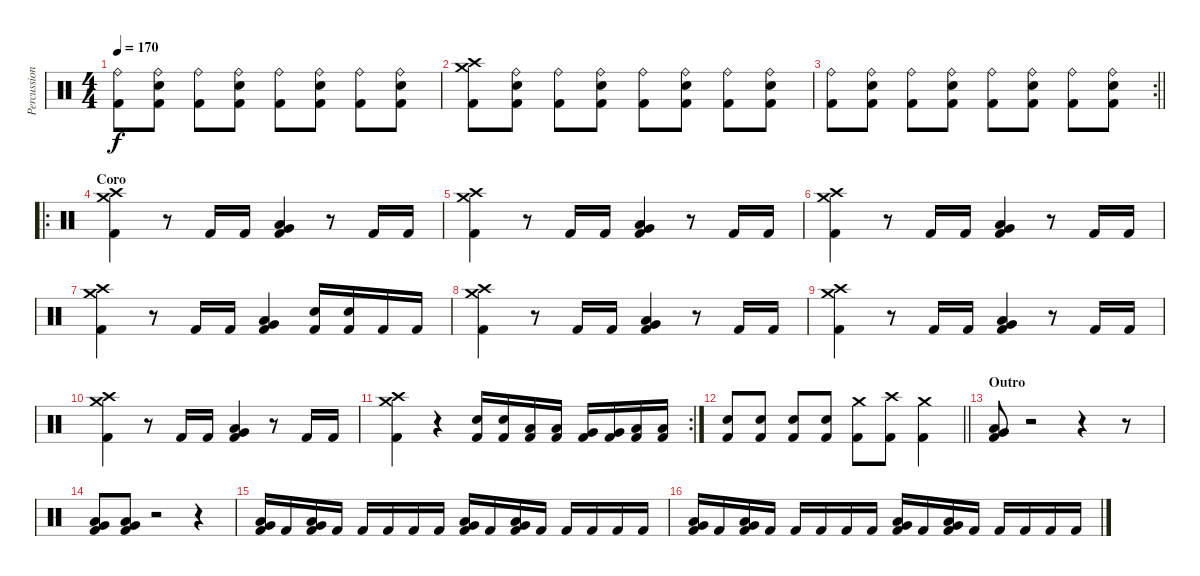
\track ("Percussion" "Percussion") {instrument percussion}
\staff {score}
\articulation defaults
\ts (4 4)
\tempo 170
\clef neutral
\ks c
("Ride (bell)" "Kick (hit) 2").8{dy f} ("Ride (bell)" "Snare (hit) 2" "Kick (hit) 2").8 ("Ride (bell)" "Kick (hit) 2").8 ("Ride (bell)" "Snare (hit) 2" "Kick (hit) 2").8 ("Ride (bell)" "Kick (hit) 2").8 ("Ride (bell)" "Snare (hit) 2" "Kick (hit) 2").8 ("Ride (bell)" "Kick (hit) 2").8 ("Ride (bell)" "Snare (hit) 2" "Kick (hit) 2").8 |
("Crash high (hit)" "Crash medium (hit)" "Kick (hit) 2").8 ("Ride (bell)" "Snare (hit) 2" "Kick (hit) 2").8 ("Ride (bell)" "Kick (hit) 2").8 ("Ride (bell)" "Snare (hit) 2" "Kick (hit) 2").8 ("Ride (bell)" "Kick (hit) 2").8 ("Ride (bell)" "Snare (hit) 2" "Kick (hit) 2").8 ("Ride (bell)" "Kick (hit) 2").8 ("Ride (bell)" "Snare (hit) 2" "Kick (hit) 2").8 |
\rc 2
\barLineRight lightlight
("Ride (bell)" "Kick (hit) 2").8 ("Ride (bell)" "Snare (hit) 2" "Kick (hit) 2").8 ("Ride (bell)" "Kick (hit) 2").8 ("Ride (bell)" "Snare (hit) 2" "Kick (hit) 2").8 ("Ride (bell)" "Kick (hit) 2").8 ("Ride (bell)" "Snare (hit) 2" "Kick (hit) 2").8 ("Ride (bell)" "Kick (hit) 2").8 ("Ride (bell)" "Snare (hit) 2" "Kick (hit) 2").8 |
\ro
\section ("" "Coro")
("Crash high (hit)" "Crash medium (hit)" "Kick (hit) 2").4 r.8 "Kick (hit) 2".16 "Kick (hit) 2".16 ("Very Low Tom (hit)" "Low Floor Tom (hit)" "Kick (hit) 2").4 r.8 "Kick (hit) 2".16 "Kick (hit) 2".16 |
("Crash high (hit)" "Crash medium (hit)" "Kick (hit) 2").4 r.8 "Kick (hit) 2".16 "Kick (hit) 2".16 ("Very Low Tom (hit)" "Low Floor Tom (hit)" "Kick (hit) 2").4 r.8 "Kick (hit) 2".16 "Kick (hit) 2".16 |
("Crash high (hit)" "Crash medium (hit)" "Kick (hit) 2").4 r.8 "Kick (hit) 2".16 "Kick (hit) 2".16 ("Very Low Tom (hit)" "Low Floor Tom (hit)" "Kick (hit) 2").4 r.8 "Kick (hit) 2".16 "Kick (hit) 2".16 |
("Crash high (hit)" "Crash medium (hit)" "Kick (hit) 2").4 r.8 "Kick (hit) 2".16 "Kick (hit) 2".16 ("Very Low Tom (hit)" "Low Floor Tom (hit)" "Kick (hit) 2").4 ("Snare (hit) 2" "Kick (hit) 2").16 ("Snare (hit) 2" "Kick (hit) 2").16 "Kick (hit) 2".16 "Kick (hit) 2".16 |
("Crash high (hit)" "Crash medium (hit)" "Kick (hit) 2").4 r.8 "Kick (hit) 2".16 "Kick (hit) 2".16 ("Very Low Tom (hit)" "Low Floor Tom (hit)" "Kick (hit) 2").4 r.8 "Kick (hit) 2".16 "Kick (hit) 2".16 |
("Crash high (hit)" "Crash medium (hit)" "Kick (hit) 2").4 r.8 "Kick (hit) 2".16 "Kick (hit) 2".16 ("Very Low Tom (hit)" "Low Floor Tom (hit)" "Kick (hit) 2").4 r.8 "Kick (hit) 2".16 "Kick (hit) 2".16 |
("Crash high (hit)" "Crash medium (hit)" "Kick (hit) 2").4 r.8 "Kick (hit) 2".16 "Kick (hit) 2".16 ("Very Low Tom (hit)" "Low Floor Tom (hit)" "Kick (hit) 2").4 r.8 "Kick (hit) 2".16 "Kick (hit) 2".16 |
\rc 2
("Crash high (hit)" "Crash medium (hit)" "Kick (hit) 2").4 r.4 ("Snare (hit) 2" "Kick (hit) 2").16 ("Snare (hit) 2" "Kick (hit) 2").16 ("Low Tom (hit)" "Kick (hit) 2").16 ("Low Tom (hit)" "Kick (hit) 2").16 ("Very Low Tom (hit)" "Kick (hit) 2").16 ("Very Low Tom (hit)" "Kick (hit) 2").16 ("Low Floor Tom (hit)" "Kick (hit) 2").16 ("Low Floor Tom (hit)" "Kick (hit) 2").16 |
\barLineRight lightlight
("Snare (hit) 2" "Kick (hit) 2").8 ("Snare (hit) 2" "Kick (hit) 2").8 ("Snare (hit) 2" "Kick (hit) 2").8 ("Snare (hit) 2" "Kick (hit) 2").8 ("Crash medium (hit)" "Kick (hit) 2").8 ("Crash high (hit)" "Kick (hit) 2").8 ("Crash medium (hit)" "Kick (hit) 2").4 |
\section ("" "Outro")
("Kick (hit) 2" "Very Low Tom (hit)" "Low Floor Tom (hit)").8 r.2 r.4 r.8 |
("Kick (hit) 2" "Very Low Tom (hit)" "Low Floor Tom (hit)").8 ("Kick (hit) 2" "Very Low Tom (hit)" "Low Floor Tom (hit)").8 r.2 r.4 |
("Low Floor Tom (hit)" "Very Low Tom (hit)" "Kick (hit) 2").16 "Kick (hit) 2".16 ("Low Floor Tom (hit)" "Very Low Tom (hit)" "Kick (hit) 2").16 "Kick (hit) 2".16 "Kick (hit) 2".16 "Kick (hit) 2".16 "Kick (hit) 2".16 "Kick (hit) 2".16 ("Low Floor Tom (hit)" "Very Low Tom (hit)" "Kick (hit) 2").16 "Kick (hit) 2".16 ("Low Floor Tom (hit)" "Very Low Tom (hit)" "Kick (hit) 2").16 "Kick (hit) 2".16 "Kick (hit) 2".16 "Kick (hit) 2".16 "Kick (hit) 2".16 "Kick (hit) 2".16 |
("Low Floor Tom (hit)" "Very Low Tom (hit)" "Kick (hit) 2").16 "Kick (hit) 2".16 ("Low Floor Tom (hit)" "Very Low Tom (hit)" "Kick (hit) 2").16 "Kick (hit) 2".16 "Kick (hit) 2".16 "Kick (hit) 2".16 "Kick (hit) 2".16 "Kick (hit) 2".16 ("Low Floor Tom (hit)" "Very Low Tom (hit)" "Kick (hit) 2").16 "Kick (hit) 2".16 ("Low Floor Tom (hit)" "Very Low Tom (hit)" "Kick (hit) 2").16 "Kick (hit) 2".16 "Kick (hit) 2".16 "Kick (hit) 2".16 "Kick (hit) 2".16 "Kick (hit) 2".16
